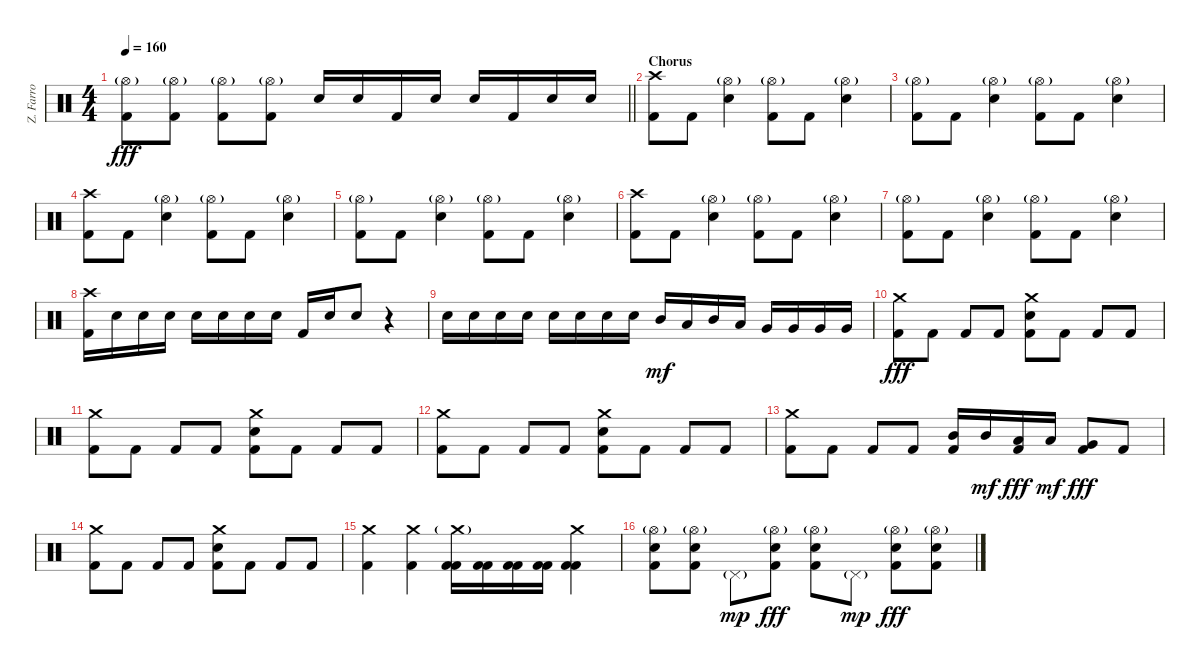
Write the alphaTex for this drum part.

\track ("Z. Farro" "Z. Farro") {instrument percussion}
\staff {score}
\articulation defaults
\ts (4 4)
\tempo 160
\clef neutral
\barLineRight lightlight
\ks c
("Hi-Hat (open)"{g} "Kick (hit) 2").8{dy fff} ("Hi-Hat (open)"{g} "Kick (hit) 2").8 ("Hi-Hat (open)"{g} "Kick (hit) 2").8 ("Hi-Hat (open)"{g} "Kick (hit) 2").8 "Electric Snare (hit)".16 "Electric Snare (hit)".16 "Kick (hit) 2".16 "Electric Snare (hit)".16 "Electric Snare (hit)".16 "Kick (hit) 2".16 "Electric Snare (hit)".16 "Electric Snare (hit)".16 |
\section ("" "Chorus")
("Crash high (hit)" "Kick (hit) 2").8 "Kick (hit) 2".8 ("Hi-Hat (open)"{g} "Electric Snare (hit)").4 ("Hi-Hat (open)"{g} "Kick (hit) 2").8 "Kick (hit) 2".8 ("Hi-Hat (open)"{g} "Electric Snare (hit)").4 |
("Hi-Hat (open)"{g} "Kick (hit) 2").8 "Kick (hit) 2".8 ("Hi-Hat (open)"{g} "Electric Snare (hit)").4 ("Hi-Hat (open)"{g} "Kick (hit) 2").8 "Kick (hit) 2".8 ("Hi-Hat (open)"{g} "Electric Snare (hit)").4 |
("Crash high (hit)" "Kick (hit) 2").8 "Kick (hit) 2".8 ("Hi-Hat (open)"{g} "Electric Snare (hit)").4 ("Hi-Hat (open)"{g} "Kick (hit) 2").8 "Kick (hit) 2".8 ("Hi-Hat (open)"{g} "Electric Snare (hit)").4 |
("Hi-Hat (open)"{g} "Kick (hit) 2").8 "Kick (hit) 2".8 ("Hi-Hat (open)"{g} "Electric Snare (hit)").4 ("Hi-Hat (open)"{g} "Kick (hit) 2").8 "Kick (hit) 2".8 ("Hi-Hat (open)"{g} "Electric Snare (hit)").4 |
("Crash high (hit)" "Kick (hit) 2").8 "Kick (hit) 2".8 ("Hi-Hat (open)"{g} "Electric Snare (hit)").4 ("Hi-Hat (open)"{g} "Kick (hit) 2").8 "Kick (hit) 2".8 ("Hi-Hat (open)"{g} "Electric Snare (hit)").4 |
("Hi-Hat (open)"{g} "Kick (hit) 2").8 "Kick (hit) 2".8 ("Hi-Hat (open)"{g} "Electric Snare (hit)").4 ("Hi-Hat (open)"{g} "Kick (hit) 2").8 "Kick (hit) 2".8 ("Hi-Hat (open)"{g} "Electric Snare (hit)").4 |
("Crash high (hit)" "Kick (hit) 2").16 "Electric Snare (hit)".16 "Electric Snare (hit)".16 "Electric Snare (hit)".16 "Electric Snare (hit)".16 "Electric Snare (hit)".16 "Electric Snare (hit)".16 "Electric Snare (hit)".16 "Kick (hit) 2".16 "Electric Snare (hit)".16 "Electric Snare (hit)".8 r.4 |
"Electric Snare (hit)".16 "Electric Snare (hit)".16 "Electric Snare (hit)".16 "Electric Snare (hit)".16 "Electric Snare (hit)".16 "Electric Snare (hit)".16 "Electric Snare (hit)".16 "Electric Snare (hit)".16 "Mid Tom (hit)".16{dy mf} "Low Tom (hit)".16 "Mid Tom (hit)".16 "Low Tom (hit)".16 "Very Low Tom (hit)".16 "Very Low Tom (hit)".16 "Very Low Tom (hit)".16 "Very Low Tom (hit)".16 |
("Crash medium (hit)" "Kick (hit) 2").8{dy fff} "Kick (hit) 2".8 "Kick (hit) 2".8 "Kick (hit) 2".8 ("Crash medium (hit)" "Electric Snare (hit)" "Kick (hit) 2").8 "Kick (hit) 2".8 "Kick (hit) 2".8 "Kick (hit) 2".8 |
("Crash medium (hit)" "Kick (hit) 2").8 "Kick (hit) 2".8 "Kick (hit) 2".8 "Kick (hit) 2".8 ("Crash medium (hit)" "Electric Snare (hit)" "Kick (hit) 2").8 "Kick (hit) 2".8 "Kick (hit) 2".8 "Kick (hit) 2".8 |
("Crash medium (hit)" "Kick (hit) 2").8 "Kick (hit) 2".8 "Kick (hit) 2".8 "Kick (hit) 2".8 ("Crash medium (hit)" "Electric Snare (hit)" "Kick (hit) 2").8 "Kick (hit) 2".8 "Kick (hit) 2".8 "Kick (hit) 2".8 |
("Crash medium (hit)" "Kick (hit) 2").8 "Kick (hit) 2".8 "Kick (hit) 2".8 "Kick (hit) 2".8 ("Mid Tom (hit)" "Kick (hit) 2").16 "Mid Tom (hit)".16{dy mf} ("Low Tom (hit)" "Kick (hit) 2").16{dy fff} "Low Tom (hit)".16{dy mf} ("Very Low Tom (hit)" "Kick (hit) 2").8{dy fff} "Kick (hit) 2".8 |
("Crash medium (hit)" "Kick (hit) 2").8 "Kick (hit) 2".8 "Kick (hit) 2".8 "Kick (hit) 2".8 ("Crash medium (hit)" "Electric Snare (hit)" "Kick (hit) 2").8 "Kick (hit) 2".8 "Kick (hit) 2".8 "Kick (hit) 2".8 |
("Crash medium (hit)" "Kick (hit) 2").4 ("Crash medium (hit)" "Kick (hit) 2").4 ("Crash medium (hit)"{g} "Kick (hit) 2" "Kick (hit) 2").16 ("Kick (hit) 2" "Kick (hit) 2").16 ("Kick (hit) 2" "Kick (hit) 2").16 ("Kick (hit) 2" "Kick (hit) 2").16 ("Crash medium (hit)" "Kick (hit) 2" "Kick (hit) 2").4 |
("Hi-Hat (open)"{g} "Electric Snare (hit)" "Kick (hit) 2").8 ("Hi-Hat (open)"{g} "Electric Snare (hit)" "Kick (hit) 2").8 "Pedal Hi-Hat (hit)"{g}.8{dy mp} ("Hi-Hat (open)"{g} "Electric Snare (hit)" "Kick (hit) 2").8{dy fff} ("Hi-Hat (open)"{g} "Electric Snare (hit)" "Kick (hit) 2").8 "Pedal Hi-Hat (hit)"{g}.8{dy mp} ("Hi-Hat (open)"{g} "Electric Snare (hit)" "Kick (hit) 2").8{dy fff} ("Hi-Hat (open)"{g} "Electric Snare (hit)" "Kick (hit) 2").8
